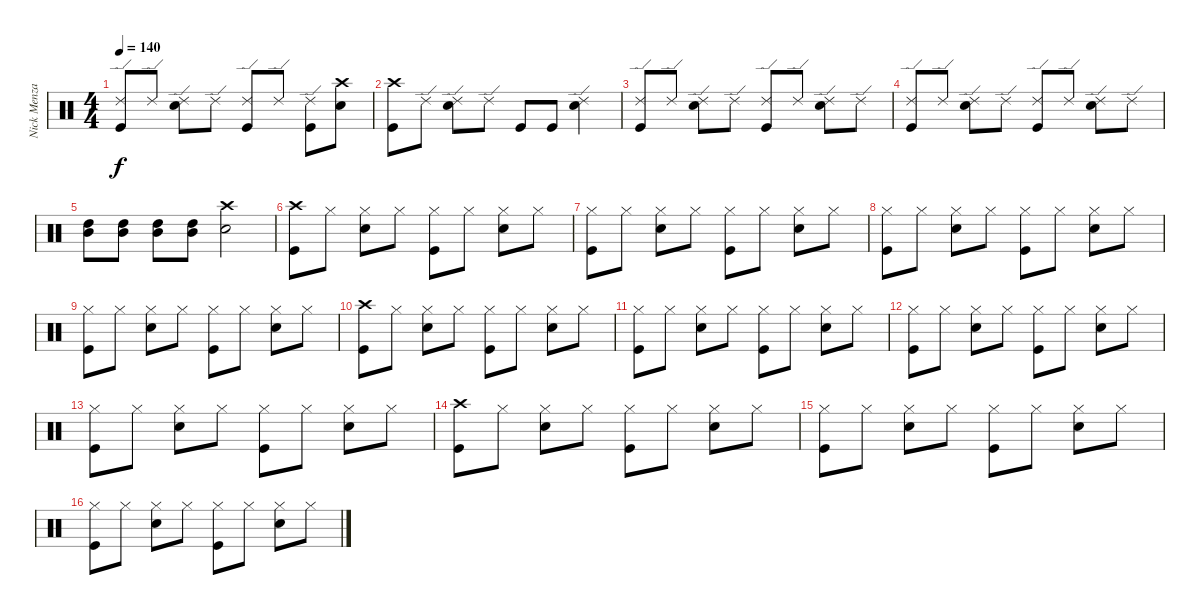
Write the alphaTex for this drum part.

\track ("Nick Menza (Drums)" "Nick Menza") {instrument percussion}
\staff {score}
\articulation defaults
\ts (4 4)
\tempo 140
\clef neutral
\ks c
("Ride (edge) 2" "Kick (hit)").8{dy f} "Ride (edge) 2".8 ("Ride (edge) 2" "Snare (hit) 2").8 "Ride (edge) 2".8 ("Ride (edge) 2" "Kick (hit)").8 "Ride (edge) 2".8 ("Ride (edge) 2" "Kick (hit)").8 ("Crash high (hit)" "Snare (hit) 2").8 |
("Crash high (hit)" "Kick (hit)").8 "Ride (edge) 2".8 ("Ride (edge) 2" "Snare (hit) 2").8 "Ride (edge) 2".8 "Kick (hit)".8 "Kick (hit)".8 ("Ride (edge) 2" "Snare (hit) 2").4 |
("Ride (edge) 2" "Kick (hit)").8 "Ride (edge) 2".8 ("Ride (edge) 2" "Snare (hit) 2").8 "Ride (edge) 2".8 ("Ride (edge) 2" "Kick (hit)").8 "Ride (edge) 2".8 ("Ride (edge) 2" "Snare (hit) 2").8 "Ride (edge) 2".8 |
("Ride (edge) 2" "Kick (hit)").8 "Ride (edge) 2".8 ("Ride (edge) 2" "Snare (hit) 2").8 "Ride (edge) 2".8 ("Ride (edge) 2" "Kick (hit)").8 "Ride (edge) 2".8 ("Ride (edge) 2" "Snare (hit) 2").8 "Ride (edge) 2".8 |
("High Tom (hit)" "Mid Tom (hit)").8 ("High Tom (hit)" "Mid Tom (hit)").8 ("High Tom (hit)" "Mid Tom (hit)").8 ("High Tom (hit)" "Mid Tom (hit)").8 ("Crash high (hit)" "Snare (hit) 2").2 |
("Crash high (hit)" "Kick (hit)").8 "Hi-Hat (closed)".8 ("Hi-Hat (closed)" "Snare (hit) 2").8 "Hi-Hat (closed)".8 ("Hi-Hat (closed)" "Kick (hit)").8 "Hi-Hat (closed)".8 ("Hi-Hat (closed)" "Snare (hit) 2").8 "Hi-Hat (closed)".8 |
("Hi-Hat (closed)" "Kick (hit)").8 "Hi-Hat (closed)".8 ("Hi-Hat (closed)" "Snare (hit) 2").8 "Hi-Hat (closed)".8 ("Hi-Hat (closed)" "Kick (hit)").8 "Hi-Hat (closed)".8 ("Hi-Hat (closed)" "Snare (hit) 2").8 "Hi-Hat (closed)".8 |
("Hi-Hat (closed)" "Kick (hit)").8 "Hi-Hat (closed)".8 ("Hi-Hat (closed)" "Snare (hit) 2").8 "Hi-Hat (closed)".8 ("Hi-Hat (closed)" "Kick (hit)").8 "Hi-Hat (closed)".8 ("Hi-Hat (closed)" "Snare (hit) 2").8 "Hi-Hat (closed)".8 |
("Hi-Hat (closed)" "Kick (hit)").8 "Hi-Hat (closed)".8 ("Hi-Hat (closed)" "Snare (hit) 2").8 "Hi-Hat (closed)".8 ("Hi-Hat (closed)" "Kick (hit)").8 "Hi-Hat (closed)".8 ("Hi-Hat (closed)" "Snare (hit) 2").8 "Hi-Hat (closed)".8 |
("Crash high (hit)" "Kick (hit)").8 "Hi-Hat (closed)".8 ("Hi-Hat (closed)" "Snare (hit) 2").8 "Hi-Hat (closed)".8 ("Hi-Hat (closed)" "Kick (hit)").8 "Hi-Hat (closed)".8 ("Hi-Hat (closed)" "Snare (hit) 2").8 "Hi-Hat (closed)".8 |
("Hi-Hat (closed)" "Kick (hit)").8 "Hi-Hat (closed)".8 ("Hi-Hat (closed)" "Snare (hit) 2").8 "Hi-Hat (closed)".8 ("Hi-Hat (closed)" "Kick (hit)").8 "Hi-Hat (closed)".8 ("Hi-Hat (closed)" "Snare (hit) 2").8 "Hi-Hat (closed)".8 |
("Hi-Hat (closed)" "Kick (hit)").8 "Hi-Hat (closed)".8 ("Hi-Hat (closed)" "Snare (hit) 2").8 "Hi-Hat (closed)".8 ("Hi-Hat (closed)" "Kick (hit)").8 "Hi-Hat (closed)".8 ("Hi-Hat (closed)" "Snare (hit) 2").8 "Hi-Hat (closed)".8 |
("Hi-Hat (closed)" "Kick (hit)").8 "Hi-Hat (closed)".8 ("Hi-Hat (closed)" "Snare (hit) 2").8 "Hi-Hat (closed)".8 ("Hi-Hat (closed)" "Kick (hit)").8 "Hi-Hat (closed)".8 ("Hi-Hat (closed)" "Snare (hit) 2").8 "Hi-Hat (closed)".8 |
("Crash high (hit)" "Kick (hit)").8 "Hi-Hat (closed)".8 ("Hi-Hat (closed)" "Snare (hit) 2").8 "Hi-Hat (closed)".8 ("Hi-Hat (closed)" "Kick (hit)").8 "Hi-Hat (closed)".8 ("Hi-Hat (closed)" "Snare (hit) 2").8 "Hi-Hat (closed)".8 |
("Hi-Hat (closed)" "Kick (hit)").8 "Hi-Hat (closed)".8 ("Hi-Hat (closed)" "Snare (hit) 2").8 "Hi-Hat (closed)".8 ("Hi-Hat (closed)" "Kick (hit)").8 "Hi-Hat (closed)".8 ("Hi-Hat (closed)" "Snare (hit) 2").8 "Hi-Hat (closed)".8 |
("Hi-Hat (closed)" "Kick (hit)").8 "Hi-Hat (closed)".8 ("Hi-Hat (closed)" "Snare (hit) 2").8 "Hi-Hat (closed)".8 ("Hi-Hat (closed)" "Kick (hit)").8 "Hi-Hat (closed)".8 ("Hi-Hat (closed)" "Snare (hit) 2").8 "Hi-Hat (closed)".8
